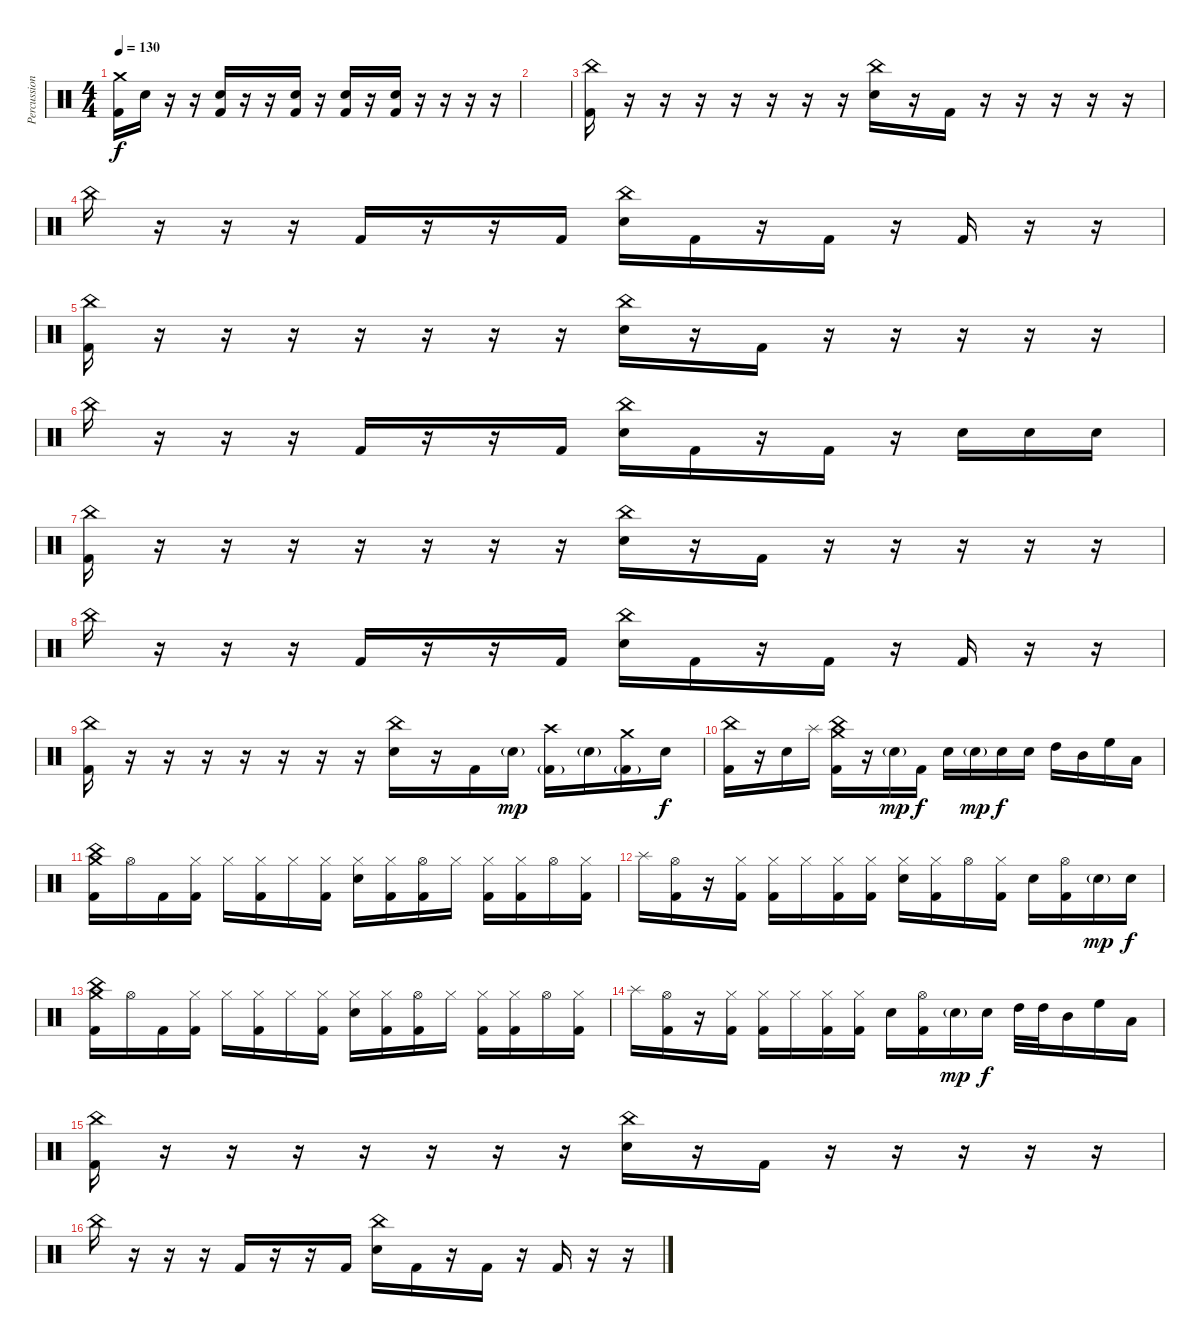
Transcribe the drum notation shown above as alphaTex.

\track ("Percussion" "Percussion") {instrument percussion}
\staff {score}
\articulation defaults
\ts (4 4)
\tempo 130
\clef neutral
\ks c
("Crash medium (hit)" "Kick (hit) 2").16{dy f} "Snare (hit) 2".16 r.16 r.16 ("Snare (hit) 2" "Kick (hit) 2").16 r.16 r.16 ("Snare (hit) 2" "Kick (hit) 2").16 r.16 ("Snare (hit) 2" "Kick (hit) 2").16 r.16 ("Snare (hit) 2" "Kick (hit) 2").16 r.16 r.16 r.16 r.16 |
|
("China (hit)" "Kick (hit) 2").16 r.16 r.16 r.16 r.16 r.16 r.16 r.16 ("China (hit)" "Snare (hit) 2").16 r.16 "Kick (hit) 2".16 r.16 r.16 r.16 r.16 r.16 |
"China (hit)".16 r.16 r.16 r.16 "Kick (hit) 2".16 r.16 r.16 "Kick (hit) 2".16 ("China (hit)" "Snare (hit) 2").16 "Kick (hit) 2".16 r.16 "Kick (hit) 2".16 r.16 "Kick (hit) 2".16 r.16 r.16 |
("China (hit)" "Kick (hit) 2").16 r.16 r.16 r.16 r.16 r.16 r.16 r.16 ("China (hit)" "Snare (hit) 2").16 r.16 "Kick (hit) 2".16 r.16 r.16 r.16 r.16 r.16 |
"China (hit)".16 r.16 r.16 r.16 "Kick (hit) 2".16 r.16 r.16 "Kick (hit) 2".16 ("China (hit)" "Snare (hit) 2").16 "Kick (hit) 2".16 r.16 "Kick (hit) 2".16 r.16 "Snare (hit) 2".16 "Snare (hit) 2".16 "Snare (hit) 2".16 |
("China (hit)" "Kick (hit) 2").16 r.16 r.16 r.16 r.16 r.16 r.16 r.16 ("China (hit)" "Snare (hit) 2").16 r.16 "Kick (hit) 2".16 r.16 r.16 r.16 r.16 r.16 |
"China (hit)".16 r.16 r.16 r.16 "Kick (hit) 2".16 r.16 r.16 "Kick (hit) 2".16 ("China (hit)" "Snare (hit) 2").16 "Kick (hit) 2".16 r.16 "Kick (hit) 2".16 r.16 "Kick (hit) 2".16 r.16 r.16 |
("China (hit)" "Kick (hit) 2").16 r.16 r.16 r.16 r.16 r.16 r.16 r.16 ("China (hit)" "Snare (hit) 2").16 r.16 "Kick (hit) 2".16 "Snare (hit) 2"{g}.16{dy mp} ("Crash high (hit)" "Kick (hit) 2"{g}).16 "Snare (hit) 2"{g}.16 ("Crash medium (hit)" "Kick (hit) 2"{g}).16 "Snare (hit) 2".16{dy f} |
("China (hit)" "Kick (hit) 2").16 r.16 "Snare (hit) 2".16 "Splash (hit)".16 ("Crash medium (hit)" "China (hit)" "Kick (hit) 2").16 r.16 "Snare (hit) 2"{g}.16{dy mp} "Kick (hit) 2".16{dy f} "Snare (hit) 2".16 "Snare (hit) 2"{g}.16{dy mp} "Snare (hit) 2".16{dy f} "Snare (hit) 2".16 "High Tom (hit)".16 "Mid Tom (hit)".16 "High Floor Tom (hit)".16 "Low Tom (hit)".16 |
("Crash medium (hit)" "China (hit)" "Kick (hit) 2").16 "Hi-Hat (open)".16 "Kick (hit) 2".16 ("Hi-Hat (closed)" "Kick (hit) 2").16 "Hi-Hat (closed)".16 ("Hi-Hat (closed)" "Kick (hit) 2").16 "Hi-Hat (closed)".16 ("Hi-Hat (closed)" "Kick (hit) 2").16 ("Hi-Hat (closed)" "Snare (hit) 2").16 ("Hi-Hat (closed)" "Kick (hit) 2").16 ("Hi-Hat (open)" "Kick (hit) 2").16 "Hi-Hat (closed)".16 ("Hi-Hat (closed)" "Kick (hit) 2").16 ("Hi-Hat (closed)" "Kick (hit) 2").16 "Hi-Hat (open)".16 ("Hi-Hat (closed)" "Kick (hit) 2").16 |
"Splash (hit)".16 ("Hi-Hat (open)" "Kick (hit) 2").16 r.16 ("Hi-Hat (closed)" "Kick (hit) 2").16 ("Hi-Hat (closed)" "Kick (hit) 2").16 "Hi-Hat (closed)".16 ("Hi-Hat (closed)" "Kick (hit) 2").16 ("Hi-Hat (closed)" "Kick (hit) 2").16 ("Hi-Hat (closed)" "Snare (hit) 2").16 ("Hi-Hat (closed)" "Kick (hit) 2").16 "Hi-Hat (open)".16 ("Hi-Hat (closed)" "Kick (hit) 2").16 "Snare (hit) 2".16 ("Hi-Hat (open)" "Kick (hit) 2").16 "Snare (hit) 2"{g}.16{dy mp} "Snare (hit) 2".16{dy f} |
("Crash medium (hit)" "China (hit)" "Kick (hit) 2").16 "Hi-Hat (open)".16 "Kick (hit) 2".16 ("Hi-Hat (closed)" "Kick (hit) 2").16 "Hi-Hat (closed)".16 ("Hi-Hat (closed)" "Kick (hit) 2").16 "Hi-Hat (closed)".16 ("Hi-Hat (closed)" "Kick (hit) 2").16 ("Hi-Hat (closed)" "Snare (hit) 2").16 ("Hi-Hat (closed)" "Kick (hit) 2").16 ("Hi-Hat (open)" "Kick (hit) 2").16 "Hi-Hat (closed)".16 ("Hi-Hat (closed)" "Kick (hit) 2").16 ("Hi-Hat (closed)" "Kick (hit) 2").16 "Hi-Hat (open)".16 ("Hi-Hat (closed)" "Kick (hit) 2").16 |
"Splash (hit)".16 ("Hi-Hat (open)" "Kick (hit) 2").16 r.16 ("Hi-Hat (closed)" "Kick (hit) 2").16 ("Hi-Hat (closed)" "Kick (hit) 2").16 "Hi-Hat (closed)".16 ("Hi-Hat (closed)" "Kick (hit) 2").16 ("Hi-Hat (closed)" "Kick (hit) 2").16 "Snare (hit) 2".16 ("Hi-Hat (open)" "Kick (hit) 2").16 "Snare (hit) 2"{g}.16{dy mp} "Snare (hit) 2".16{dy f} "High Tom (hit)".32 "High Tom (hit)".32 "Mid Tom (hit)".16 "High Floor Tom (hit)".16 "Low Tom (hit)".16 |
("China (hit)" "Kick (hit) 2").16 r.16 r.16 r.16 r.16 r.16 r.16 r.16 ("China (hit)" "Snare (hit) 2").16 r.16 "Kick (hit) 2".16 r.16 r.16 r.16 r.16 r.16 |
"China (hit)".16 r.16 r.16 r.16 "Kick (hit) 2".16 r.16 r.16 "Kick (hit) 2".16 ("China (hit)" "Snare (hit) 2").16 "Kick (hit) 2".16 r.16 "Kick (hit) 2".16 r.16 "Kick (hit) 2".16 r.16 r.16
